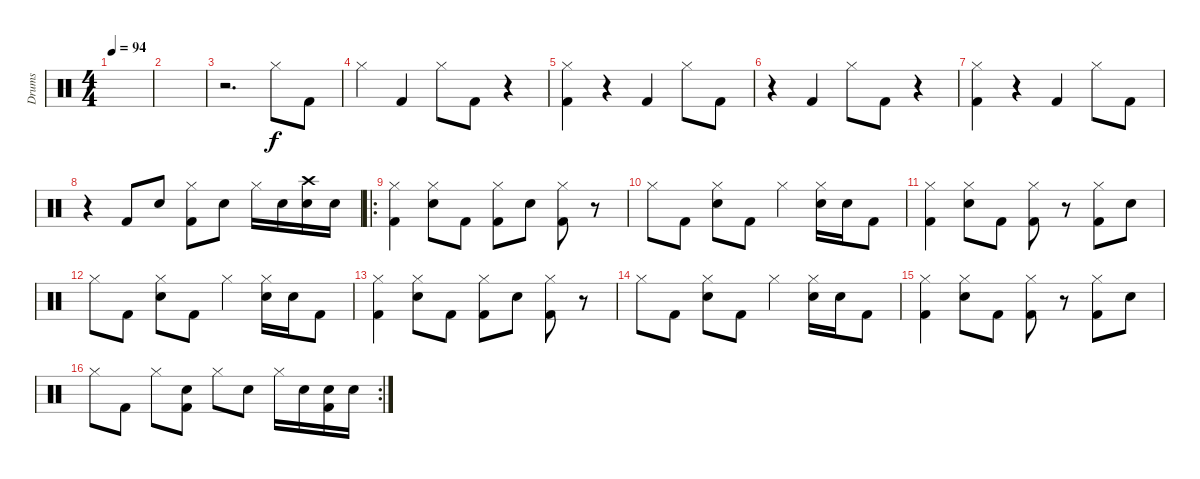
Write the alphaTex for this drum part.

\track ("Drums" "Drums") {instrument percussion}
\staff {score}
\articulation defaults
\ts (4 4)
\tempo 94
\clef neutral
\ks c
|
|
r.2{d} "Hi-Hat (closed)".8 "Kick (hit) 2".8 |
"Hi-Hat (closed)".4 "Kick (hit) 2".4 "Hi-Hat (closed)".8 "Kick (hit) 2".8 r.4 |
("Hi-Hat (closed)" "Kick (hit) 2").4 r.4 "Kick (hit) 2".4 "Hi-Hat (closed)".8 "Kick (hit) 2".8 |
r.4 "Kick (hit) 2".4 "Hi-Hat (closed)".8 "Kick (hit) 2".8 r.4 |
("Hi-Hat (closed)" "Kick (hit) 2").4 r.4 "Kick (hit) 2".4 "Hi-Hat (closed)".8 "Kick (hit) 2".8 |
r.4 "Kick (hit) 2".8 "Snare (hit) 2".8 ("Hi-Hat (closed)" "Kick (hit) 2").8 "Snare (hit) 2".8 "Hi-Hat (closed)".16 "Snare (hit) 2".16 ("Crash high (hit)" "Snare (hit) 2").16 "Snare (hit) 2".16 |
\ro
("Hi-Hat (closed)" "Kick (hit) 2").4 ("Hi-Hat (closed)" "Snare (hit) 2").8 "Kick (hit) 2".8 ("Hi-Hat (closed)" "Kick (hit) 2").8 "Snare (hit) 2".8 ("Hi-Hat (closed)" "Kick (hit) 2").8 r.8 |
"Hi-Hat (closed)".8 "Kick (hit) 2".8 ("Hi-Hat (closed)" "Snare (hit) 2").8 "Kick (hit) 2".8 "Hi-Hat (closed)".4 ("Hi-Hat (closed)" "Snare (hit) 2").16 "Snare (hit) 2".16 "Kick (hit) 2".8 |
("Hi-Hat (closed)" "Kick (hit) 2").4 ("Hi-Hat (closed)" "Snare (hit) 2").8 "Kick (hit) 2".8 ("Hi-Hat (closed)" "Kick (hit) 2").8 r.8 ("Hi-Hat (closed)" "Kick (hit) 2").8 "Snare (hit) 2".8 |
"Hi-Hat (closed)".8 "Kick (hit) 2".8 ("Hi-Hat (closed)" "Snare (hit) 2").8 "Kick (hit) 2".8 "Hi-Hat (closed)".4 ("Hi-Hat (closed)" "Snare (hit) 2").16 "Snare (hit) 2".16 "Kick (hit) 2".8 |
("Hi-Hat (closed)" "Kick (hit) 2").4 ("Hi-Hat (closed)" "Snare (hit) 2").8 "Kick (hit) 2".8 ("Hi-Hat (closed)" "Kick (hit) 2").8 "Snare (hit) 2".8 ("Hi-Hat (closed)" "Kick (hit) 2").8 r.8 |
"Hi-Hat (closed)".8 "Kick (hit) 2".8 ("Hi-Hat (closed)" "Snare (hit) 2").8 "Kick (hit) 2".8 "Hi-Hat (closed)".4 ("Hi-Hat (closed)" "Snare (hit) 2").16 "Snare (hit) 2".16 "Kick (hit) 2".8 |
("Hi-Hat (closed)" "Kick (hit) 2").4 ("Hi-Hat (closed)" "Snare (hit) 2").8 "Kick (hit) 2".8 ("Hi-Hat (closed)" "Kick (hit) 2").8 r.8 ("Hi-Hat (closed)" "Kick (hit) 2").8 "Snare (hit) 2".8 |
\rc 2 "Hi-Hat (closed)".8 "Kick (hit) 2".8 "Hi-Hat (closed)".8
("Snare (hit) 2" "Kick (hit) 2").8 "Hi-Hat (closed)".8 "Snare (hit) 2".8 "Hi-Hat (closed)".16 "Snare (hit) 2".16 ("Snare (hit) 2" "Kick (hit) 2").16 "Snare (hit) 2".16
